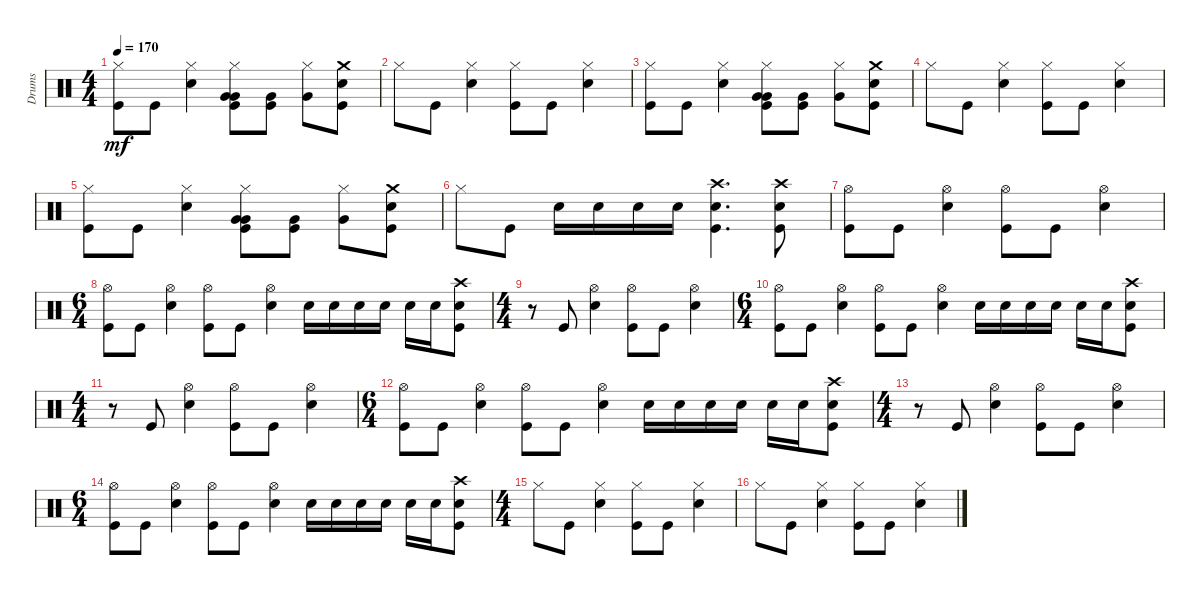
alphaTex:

\track ("Drums" "Drums") {instrument percussion}
\staff {score}
\articulation defaults
\ts (4 4)
\tempo 170
\clef neutral
\ks c
("Hi-Hat (closed)" "Kick (hit)").8{dy mf} "Kick (hit)".8 ("Hi-Hat (closed)" "Electric Snare (hit)").4 ("Very Low Tom (hit)" "Hi-Hat (closed)" "Very Low Tom (hit)" "Kick (hit)").8 ("Very Low Tom (hit)" "Kick (hit)").8 ("Hi-Hat (closed)" "Very Low Tom (hit)").8 ("Crash medium (hit)" "Electric Snare (hit)" "Kick (hit)").8 |
"Hi-Hat (closed)".8 "Kick (hit)".8 ("Hi-Hat (closed)" "Electric Snare (hit)").4 ("Hi-Hat (closed)" "Kick (hit)").8 "Kick (hit)".8 ("Hi-Hat (closed)" "Electric Snare (hit)").4 |
("Hi-Hat (closed)" "Kick (hit)").8 "Kick (hit)".8 ("Hi-Hat (closed)" "Electric Snare (hit)").4 ("Very Low Tom (hit)" "Hi-Hat (closed)" "Very Low Tom (hit)" "Kick (hit)").8 ("Very Low Tom (hit)" "Kick (hit)").8 ("Hi-Hat (closed)" "Very Low Tom (hit)").8 ("Crash medium (hit)" "Electric Snare (hit)" "Kick (hit)").8 |
"Hi-Hat (closed)".8 "Kick (hit)".8 ("Hi-Hat (closed)" "Electric Snare (hit)").4 ("Hi-Hat (closed)" "Kick (hit)").8 "Kick (hit)".8 ("Hi-Hat (closed)" "Electric Snare (hit)").4 |
("Hi-Hat (closed)" "Kick (hit)").8 "Kick (hit)".8 ("Hi-Hat (closed)" "Electric Snare (hit)").4 ("Very Low Tom (hit)" "Hi-Hat (closed)" "Very Low Tom (hit)" "Kick (hit)").8 ("Very Low Tom (hit)" "Kick (hit)").8 ("Hi-Hat (closed)" "Very Low Tom (hit)").8 ("Crash medium (hit)" "Electric Snare (hit)" "Kick (hit)").8 |
"Hi-Hat (closed)".8 "Kick (hit)".8 "Electric Snare (hit)".16 "Electric Snare (hit)".16 "Electric Snare (hit)".16 "Electric Snare (hit)".16 ("Crash high (hit)" "Electric Snare (hit)" "Kick (hit)").4{d} ("Crash high (hit)" "Electric Snare (hit)" "Kick (hit)").8 |
("Hi-Hat (open)" "Kick (hit)").8 "Kick (hit)".8 ("Hi-Hat (open)" "Electric Snare (hit)").4 ("Hi-Hat (open)" "Kick (hit)").8 "Kick (hit)".8 ("Hi-Hat (open)" "Electric Snare (hit)").4 |
\ts (6 4)
("Hi-Hat (open)" "Kick (hit)").8 "Kick (hit)".8 ("Hi-Hat (open)" "Electric Snare (hit)").4 ("Hi-Hat (open)" "Kick (hit)").8 "Kick (hit)".8 ("Hi-Hat (open)" "Electric Snare (hit)").4 "Electric Snare (hit)".16 "Electric Snare (hit)".16 "Electric Snare (hit)".16 "Electric Snare (hit)".16 "Electric Snare (hit)".16 "Electric Snare (hit)".16 ("Crash high (hit)" "Electric Snare (hit)" "Kick (hit)").8 |
\ts (4 4)
r.8 "Kick (hit)".8 ("Hi-Hat (open)" "Electric Snare (hit)").4 ("Hi-Hat (open)" "Kick (hit)").8 "Kick (hit)".8 ("Hi-Hat (open)" "Electric Snare (hit)").4 |
\ts (6 4)
("Hi-Hat (open)" "Kick (hit)").8 "Kick (hit)".8 ("Hi-Hat (open)" "Electric Snare (hit)").4 ("Hi-Hat (open)" "Kick (hit)").8 "Kick (hit)".8 ("Hi-Hat (open)" "Electric Snare (hit)").4 "Electric Snare (hit)".16 "Electric Snare (hit)".16 "Electric Snare (hit)".16 "Electric Snare (hit)".16 "Electric Snare (hit)".16 "Electric Snare (hit)".16 ("Crash high (hit)" "Electric Snare (hit)" "Kick (hit)").8 |
\ts (4 4)
r.8 "Kick (hit)".8 ("Hi-Hat (open)" "Electric Snare (hit)").4 ("Hi-Hat (open)" "Kick (hit)").8 "Kick (hit)".8 ("Hi-Hat (open)" "Electric Snare (hit)").4 |
\ts (6 4)
("Hi-Hat (open)" "Kick (hit)").8 "Kick (hit)".8 ("Hi-Hat (open)" "Electric Snare (hit)").4 ("Hi-Hat (open)" "Kick (hit)").8 "Kick (hit)".8 ("Hi-Hat (open)" "Electric Snare (hit)").4 "Electric Snare (hit)".16 "Electric Snare (hit)".16 "Electric Snare (hit)".16 "Electric Snare (hit)".16 "Electric Snare (hit)".16 "Electric Snare (hit)".16 ("Crash high (hit)" "Electric Snare (hit)" "Kick (hit)").8 |
\ts (4 4)
r.8 "Kick (hit)".8 ("Hi-Hat (open)" "Electric Snare (hit)").4 ("Hi-Hat (open)" "Kick (hit)").8 "Kick (hit)".8 ("Hi-Hat (open)" "Electric Snare (hit)").4 |
\ts (6 4)
("Hi-Hat (open)" "Kick (hit)").8 "Kick (hit)".8 ("Hi-Hat (open)" "Electric Snare (hit)").4 ("Hi-Hat (open)" "Kick (hit)").8 "Kick (hit)".8 ("Hi-Hat (open)" "Electric Snare (hit)").4 "Electric Snare (hit)".16 "Electric Snare (hit)".16 "Electric Snare (hit)".16 "Electric Snare (hit)".16 "Electric Snare (hit)".16 "Electric Snare (hit)".16 ("Crash high (hit)" "Electric Snare (hit)" "Kick (hit)").8 |
\ts (4 4)
"Hi-Hat (closed)".8 "Kick (hit)".8 ("Hi-Hat (closed)" "Electric Snare (hit)").4 ("Hi-Hat (closed)" "Kick (hit)").8 "Kick (hit)".8 ("Hi-Hat (closed)" "Electric Snare (hit)").4 |
"Hi-Hat (closed)".8 "Kick (hit)".8 ("Hi-Hat (closed)" "Electric Snare (hit)").4 ("Hi-Hat (closed)" "Kick (hit)").8 "Kick (hit)".8 ("Hi-Hat (closed)" "Electric Snare (hit)").4
